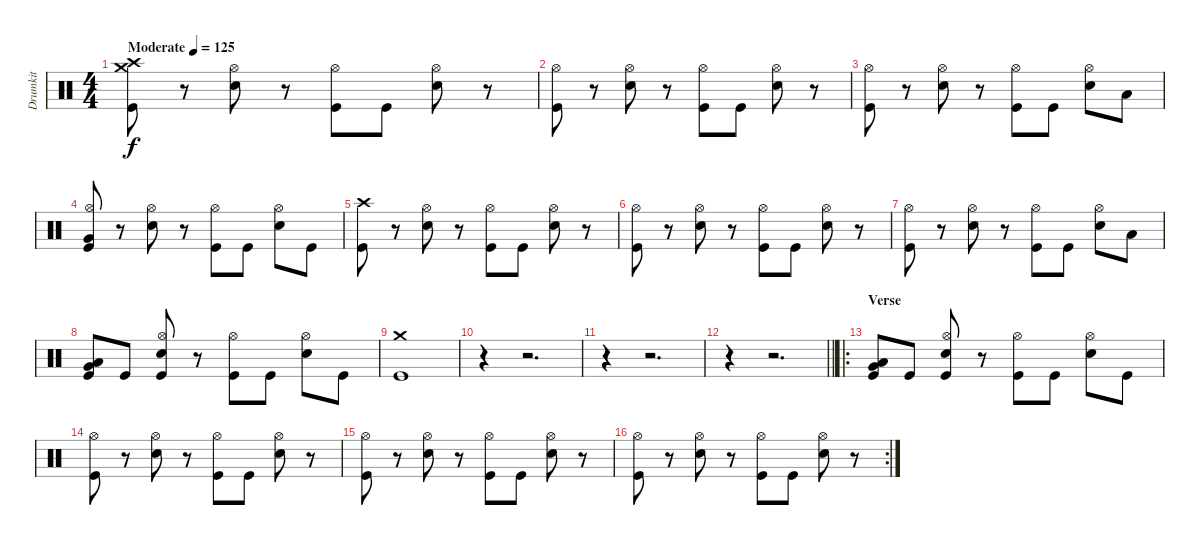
\track ("Drumkit" "Drumkit") {instrument percussion}
\staff {score}
\articulation defaults
\ts (4 4)
\tempo (125 "Moderate")
\clef neutral
\ks c
("Crash medium (hit)" "Crash high (hit)" "Kick (hit)").8{dy f} r.8 ("Hi-Hat (open)" "Snare (hit) 2").8 r.8 ("Hi-Hat (open)" "Kick (hit)").8 "Kick (hit)".8 ("Hi-Hat (open)" "Snare (hit) 2").8 r.8 |
("Hi-Hat (open)" "Kick (hit)").8 r.8 ("Hi-Hat (open)" "Snare (hit) 2").8 r.8 ("Hi-Hat (open)" "Kick (hit)").8 "Kick (hit)".8 ("Hi-Hat (open)" "Snare (hit) 2").8 r.8 |
("Hi-Hat (open)" "Kick (hit)").8 r.8 ("Hi-Hat (open)" "Snare (hit) 2").8 r.8 ("Hi-Hat (open)" "Kick (hit)").8 "Kick (hit)".8 ("Hi-Hat (open)" "Snare (hit) 2").8 "Low Tom (hit)".8 |
("Hi-Hat (open)" "Very Low Tom (hit)" "Kick (hit)").8 r.8 ("Hi-Hat (open)" "Snare (hit) 2").8 r.8 ("Hi-Hat (open)" "Kick (hit)").8 "Kick (hit)".8 ("Hi-Hat (open)" "Snare (hit) 2").8 "Kick (hit)".8 |
("Crash high (hit)" "Kick (hit)").8 r.8 ("Hi-Hat (open)" "Snare (hit) 2").8 r.8 ("Hi-Hat (open)" "Kick (hit)").8 "Kick (hit)".8 ("Hi-Hat (open)" "Snare (hit) 2").8 r.8 |
("Hi-Hat (open)" "Kick (hit)").8 r.8 ("Hi-Hat (open)" "Snare (hit) 2").8 r.8 ("Hi-Hat (open)" "Kick (hit)").8 "Kick (hit)".8 ("Hi-Hat (open)" "Snare (hit) 2").8 r.8 |
("Hi-Hat (open)" "Kick (hit)").8 r.8 ("Hi-Hat (open)" "Snare (hit) 2").8 r.8 ("Hi-Hat (open)" "Kick (hit)").8 "Kick (hit)".8 ("Hi-Hat (open)" "Snare (hit) 2").8 "Low Tom (hit)".8 |
("Very Low Tom (hit)" "Low Tom (hit)" "Kick (hit)").8 "Kick (hit)".8 ("Hi-Hat (open)" "Snare (hit) 2" "Kick (hit)").8 r.8 ("Hi-Hat (open)" "Kick (hit)").8 "Kick (hit)".8 ("Hi-Hat (open)" "Snare (hit) 2").8 "Kick (hit)".8 |
("Crash medium (hit)" "Kick (hit)").1 |
r.4 r.2{d} |
r.4 r.2{d} |
\barLineRight lightlight
r.4 r.2{d} |
\ro
\section ("" "Verse")
("Very Low Tom (hit)" "Low Tom (hit)" "Kick (hit)").8 "Kick (hit)".8 ("Hi-Hat (open)" "Snare (hit) 2" "Kick (hit)").8 r.8 ("Hi-Hat (open)" "Kick (hit)").8 "Kick (hit)".8 ("Hi-Hat (open)" "Snare (hit) 2").8 "Kick (hit)".8 |
("Hi-Hat (open)" "Kick (hit)").8 r.8 ("Hi-Hat (open)" "Snare (hit) 2").8 r.8 ("Hi-Hat (open)" "Kick (hit)").8 "Kick (hit)".8 ("Hi-Hat (open)" "Snare (hit) 2").8 r.8 |
("Hi-Hat (open)" "Kick (hit)").8 r.8 ("Hi-Hat (open)" "Snare (hit) 2").8 r.8 ("Hi-Hat (open)" "Kick (hit)").8 "Kick (hit)".8 ("Hi-Hat (open)" "Snare (hit) 2").8 r.8 |
\rc 2
("Hi-Hat (open)" "Kick (hit)").8 r.8 ("Hi-Hat (open)" "Snare (hit) 2").8 r.8 ("Hi-Hat (open)" "Kick (hit)").8 "Kick (hit)".8 ("Hi-Hat (open)" "Snare (hit) 2").8 r.8
